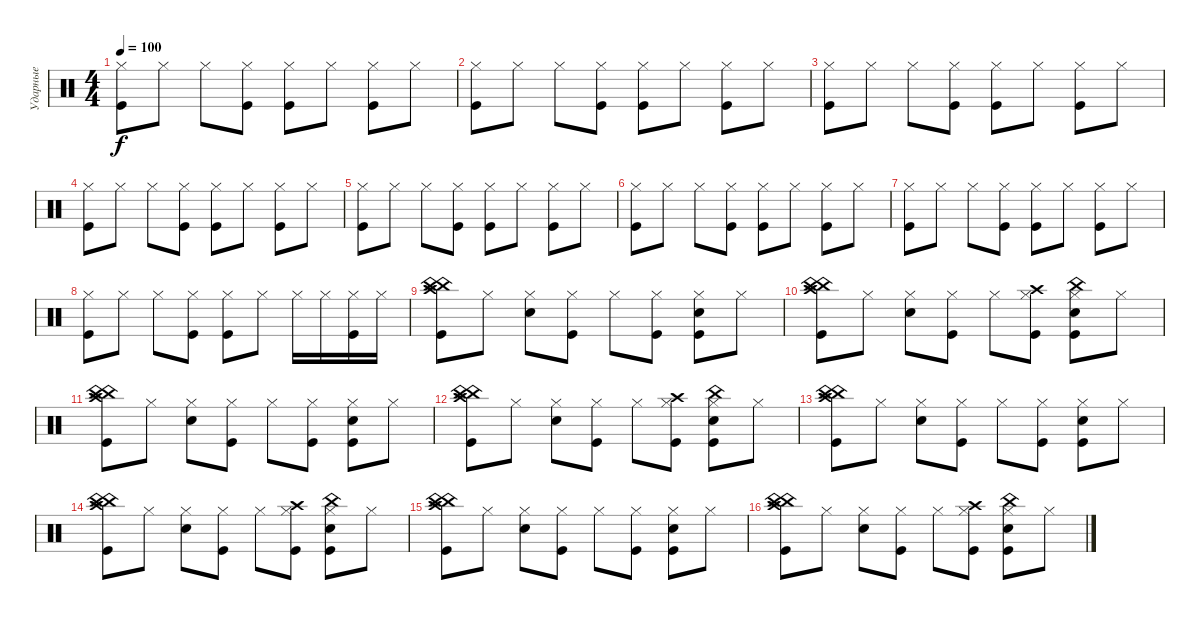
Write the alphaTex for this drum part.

\track ("Ударные" "Ударные") {instrument percussion}
\staff {score}
\articulation defaults
\ts (4 4)
\tempo 100
\clef neutral
\ks c
("Hi-Hat (closed)" "Kick (hit)").8{dy f} "Hi-Hat (closed)".8 "Hi-Hat (closed)".8 ("Hi-Hat (closed)" "Kick (hit)").8 ("Hi-Hat (closed)" "Kick (hit)").8 "Hi-Hat (closed)".8 ("Hi-Hat (closed)" "Kick (hit)").8 "Hi-Hat (closed)".8 |
("Hi-Hat (closed)" "Kick (hit)").8 "Hi-Hat (closed)".8 "Hi-Hat (closed)".8 ("Hi-Hat (closed)" "Kick (hit)").8 ("Hi-Hat (closed)" "Kick (hit)").8 "Hi-Hat (closed)".8 ("Hi-Hat (closed)" "Kick (hit)").8 "Hi-Hat (closed)".8 |
("Hi-Hat (closed)" "Kick (hit)").8 "Hi-Hat (closed)".8 "Hi-Hat (closed)".8 ("Hi-Hat (closed)" "Kick (hit)").8 ("Hi-Hat (closed)" "Kick (hit)").8 "Hi-Hat (closed)".8 ("Hi-Hat (closed)" "Kick (hit)").8 "Hi-Hat (closed)".8 |
("Hi-Hat (closed)" "Kick (hit)").8 "Hi-Hat (closed)".8 "Hi-Hat (closed)".8 ("Hi-Hat (closed)" "Kick (hit)").8 ("Hi-Hat (closed)" "Kick (hit)").8 "Hi-Hat (closed)".8 ("Hi-Hat (closed)" "Kick (hit)").8 "Hi-Hat (closed)".8 |
("Hi-Hat (closed)" "Kick (hit)").8 "Hi-Hat (closed)".8 "Hi-Hat (closed)".8 ("Hi-Hat (closed)" "Kick (hit)").8 ("Hi-Hat (closed)" "Kick (hit)").8 "Hi-Hat (closed)".8 ("Hi-Hat (closed)" "Kick (hit)").8 "Hi-Hat (closed)".8 |
("Hi-Hat (closed)" "Kick (hit)").8 "Hi-Hat (closed)".8 "Hi-Hat (closed)".8 ("Hi-Hat (closed)" "Kick (hit)").8 ("Hi-Hat (closed)" "Kick (hit)").8 "Hi-Hat (closed)".8 ("Hi-Hat (closed)" "Kick (hit)").8 "Hi-Hat (closed)".8 |
("Hi-Hat (closed)" "Kick (hit)").8 "Hi-Hat (closed)".8 "Hi-Hat (closed)".8 ("Hi-Hat (closed)" "Kick (hit)").8 ("Hi-Hat (closed)" "Kick (hit)").8 "Hi-Hat (closed)".8 ("Hi-Hat (closed)" "Kick (hit)").8 "Hi-Hat (closed)".8 |
("Hi-Hat (closed)" "Kick (hit)").8 "Hi-Hat (closed)".8 "Hi-Hat (closed)".8 ("Hi-Hat (closed)" "Kick (hit)").8 ("Hi-Hat (closed)" "Kick (hit)").8 "Hi-Hat (closed)".8 "Hi-Hat (closed)".16 "Hi-Hat (closed)".16 ("Hi-Hat (closed)" "Kick (hit)").16 "Hi-Hat (closed)".16 |
("China (hit)" "Crash high (hit)" "China (hit)" "Kick (hit)").8 "Hi-Hat (closed)".8 ("Hi-Hat (closed)" "Snare (hit) 2").8 ("Hi-Hat (closed)" "Kick (hit)").8 "Hi-Hat (closed)".8 ("Hi-Hat (closed)" "Kick (hit)").8 ("Hi-Hat (closed)" "Kick (hit)" "Snare (hit) 2").8 "Hi-Hat (closed)".8 |
("China (hit)" "Crash high (hit)" "China (hit)" "Kick (hit)").8 "Hi-Hat (closed)".8 ("Hi-Hat (closed)" "Snare (hit) 2").8 ("Hi-Hat (closed)" "Kick (hit)").8 "Hi-Hat (closed)".8 ("Hi-Hat (closed)" "Kick (hit)" "Crash high (hit)").8 ("Hi-Hat (closed)" "Kick (hit)" "Snare (hit) 2" "China (hit)").8 "Hi-Hat (closed)".8 |
("China (hit)" "Crash high (hit)" "China (hit)" "Kick (hit)").8 "Hi-Hat (closed)".8 ("Hi-Hat (closed)" "Snare (hit) 2").8 ("Hi-Hat (closed)" "Kick (hit)").8 "Hi-Hat (closed)".8 ("Hi-Hat (closed)" "Kick (hit)").8 ("Hi-Hat (closed)" "Kick (hit)" "Snare (hit) 2").8 "Hi-Hat (closed)".8 |
("China (hit)" "Crash high (hit)" "China (hit)" "Kick (hit)").8 "Hi-Hat (closed)".8 ("Hi-Hat (closed)" "Snare (hit) 2").8 ("Hi-Hat (closed)" "Kick (hit)").8 "Hi-Hat (closed)".8 ("Hi-Hat (closed)" "Kick (hit)" "Crash high (hit)").8 ("Hi-Hat (closed)" "Kick (hit)" "Snare (hit) 2" "China (hit)").8 "Hi-Hat (closed)".8 |
("China (hit)" "Crash high (hit)" "China (hit)" "Kick (hit)").8 "Hi-Hat (closed)".8 ("Hi-Hat (closed)" "Snare (hit) 2").8 ("Hi-Hat (closed)" "Kick (hit)").8 "Hi-Hat (closed)".8 ("Hi-Hat (closed)" "Kick (hit)").8 ("Hi-Hat (closed)" "Kick (hit)" "Snare (hit) 2").8 "Hi-Hat (closed)".8 |
("China (hit)" "Crash high (hit)" "China (hit)" "Kick (hit)").8 "Hi-Hat (closed)".8 ("Hi-Hat (closed)" "Snare (hit) 2").8 ("Hi-Hat (closed)" "Kick (hit)").8 "Hi-Hat (closed)".8 ("Hi-Hat (closed)" "Kick (hit)" "Crash high (hit)").8 ("Hi-Hat (closed)" "Kick (hit)" "Snare (hit) 2" "China (hit)").8 "Hi-Hat (closed)".8 |
("China (hit)" "Crash high (hit)" "China (hit)" "Kick (hit)").8 "Hi-Hat (closed)".8 ("Hi-Hat (closed)" "Snare (hit) 2").8 ("Hi-Hat (closed)" "Kick (hit)").8 "Hi-Hat (closed)".8 ("Hi-Hat (closed)" "Kick (hit)").8 ("Hi-Hat (closed)" "Kick (hit)" "Snare (hit) 2").8 "Hi-Hat (closed)".8 |
("China (hit)" "Crash high (hit)" "China (hit)" "Kick (hit)").8 "Hi-Hat (closed)".8 ("Hi-Hat (closed)" "Snare (hit) 2").8 ("Hi-Hat (closed)" "Kick (hit)").8 "Hi-Hat (closed)".8 ("Hi-Hat (closed)" "Kick (hit)" "Crash high (hit)").8 ("Hi-Hat (closed)" "Kick (hit)" "Snare (hit) 2" "China (hit)").8 "Hi-Hat (closed)".8
